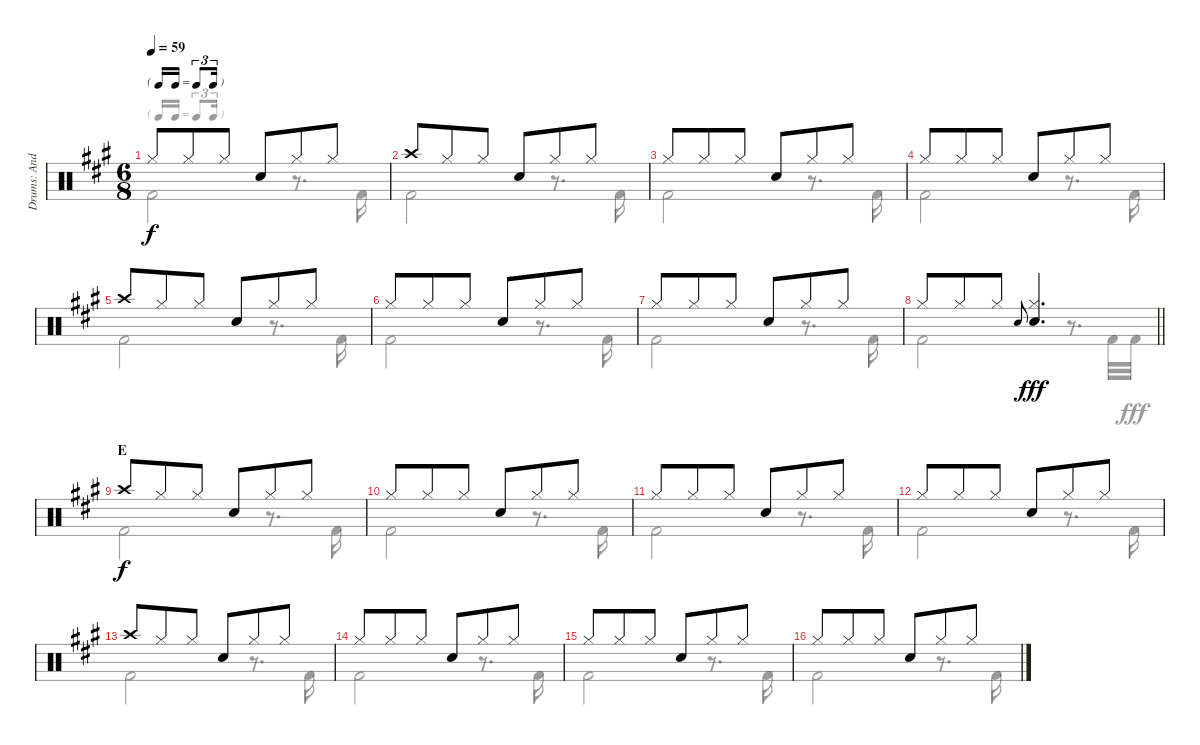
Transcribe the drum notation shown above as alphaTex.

\track ("Drums: Andy Newmark" "Drums: And") {instrument percussion}
\staff {score}
\articulation defaults
\voice
\ts (6 8)
\tf triplet16th
\tempo 59
\clef neutral
\ks a "Hi-Hat (closed)".8{dy f} "Hi-Hat (closed)".8 "Hi-Hat (closed)".8 "Snare (hit) 2".8 "Hi-Hat (closed)".8 "Hi-Hat (closed)".8
|
"Crash high (hit)".8 "Hi-Hat (closed)".8 "Hi-Hat (closed)".8 "Snare (hit) 2".8 "Hi-Hat (closed)".8 "Hi-Hat (closed)".8 |
"Hi-Hat (closed)".8 "Hi-Hat (closed)".8 "Hi-Hat (closed)".8 "Snare (hit) 2".8 "Hi-Hat (closed)".8 "Hi-Hat (closed)".8 |
"Hi-Hat (closed)".8 "Hi-Hat (closed)".8 "Hi-Hat (closed)".8 "Snare (hit) 2".8 "Hi-Hat (closed)".8 "Hi-Hat (closed)".8 |
"Crash high (hit)".8 "Hi-Hat (closed)".8 "Hi-Hat (closed)".8 "Snare (hit) 2".8 "Hi-Hat (closed)".8 "Hi-Hat (closed)".8 |
"Hi-Hat (closed)".8 "Hi-Hat (closed)".8 "Hi-Hat (closed)".8 "Snare (hit) 2".8 "Hi-Hat (closed)".8 "Hi-Hat (closed)".8 |
"Hi-Hat (closed)".8 "Hi-Hat (closed)".8 "Hi-Hat (closed)".8 "Snare (hit) 2".8 "Hi-Hat (closed)".8 "Hi-Hat (closed)".8 |
\barLineRight lightlight "Hi-Hat (closed)".8 "Hi-Hat (closed)".8 "Hi-Hat (closed)".8 "Snare (hit) 2".8{gr onbeat}
("Hi-Hat (closed)" "Electric Snare (hit)").4{d dy fff} |
\section ("" "E")
"Crash high (hit)".8{dy f} "Hi-Hat (closed)".8 "Hi-Hat (closed)".8 "Snare (hit) 2".8 "Hi-Hat (closed)".8 "Hi-Hat (closed)".8 |
"Hi-Hat (closed)".8 "Hi-Hat (closed)".8 "Hi-Hat (closed)".8 "Snare (hit) 2".8 "Hi-Hat (closed)".8 "Hi-Hat (closed)".8 |
"Hi-Hat (closed)".8 "Hi-Hat (closed)".8 "Hi-Hat (closed)".8 "Snare (hit) 2".8 "Hi-Hat (closed)".8 "Hi-Hat (closed)".8 |
"Hi-Hat (closed)".8 "Hi-Hat (closed)".8 "Hi-Hat (closed)".8 "Snare (hit) 2".8 "Hi-Hat (closed)".8 "Hi-Hat (closed)".8 |
"Crash high (hit)".8 "Hi-Hat (closed)".8 "Hi-Hat (closed)".8 "Snare (hit) 2".8 "Hi-Hat (closed)".8 "Hi-Hat (closed)".8 |
"Hi-Hat (closed)".8 "Hi-Hat (closed)".8 "Hi-Hat (closed)".8 "Snare (hit) 2".8 "Hi-Hat (closed)".8 "Hi-Hat (closed)".8 |
"Hi-Hat (closed)".8 "Hi-Hat (closed)".8 "Hi-Hat (closed)".8 "Snare (hit) 2".8 "Hi-Hat (closed)".8 "Hi-Hat (closed)".8 |
"Hi-Hat (closed)".8 "Hi-Hat (closed)".8 "Hi-Hat (closed)".8 "Snare (hit) 2".8 "Hi-Hat (closed)".8 "Hi-Hat (closed)".8
\voice
\clef neutral
\ottava regular
\simile none
\ks a "Kick (hit) 2".2{dy f}
r.8{d} "Kick (hit) 2".16 |
"Kick (hit) 2".2 r.8{d} "Kick (hit) 2".16 |
"Kick (hit) 2".2 r.8{d} "Kick (hit) 2".16 |
"Kick (hit) 2".2 r.8{d} "Kick (hit) 2".16 |
"Kick (hit) 2".2 r.8{d} "Kick (hit) 2".16 |
"Kick (hit) 2".2 r.8{d} "Kick (hit) 2".16 |
"Kick (hit) 2".2 r.8{d} "Kick (hit) 2".16 |
\barLineRight lightlight "Kick (hit) 2".2
r.8{d} "Kick (hit) 2".32 "Kick (hit) 2".32{dy fff} |
"Kick (hit) 2".2{dy f} r.8{d} "Kick (hit) 2".16 |
"Kick (hit) 2".2 r.8{d} "Kick (hit) 2".16 |
"Kick (hit) 2".2 r.8{d} "Kick (hit) 2".16 |
"Kick (hit) 2".2 r.8{d} "Kick (hit) 2".16 |
"Kick (hit) 2".2 r.8{d} "Kick (hit) 2".16 |
"Kick (hit) 2".2 r.8{d} "Kick (hit) 2".16 |
"Kick (hit) 2".2 r.8{d} "Kick (hit) 2".16 |
"Kick (hit) 2".2 r.8{d} "Kick (hit) 2".16
